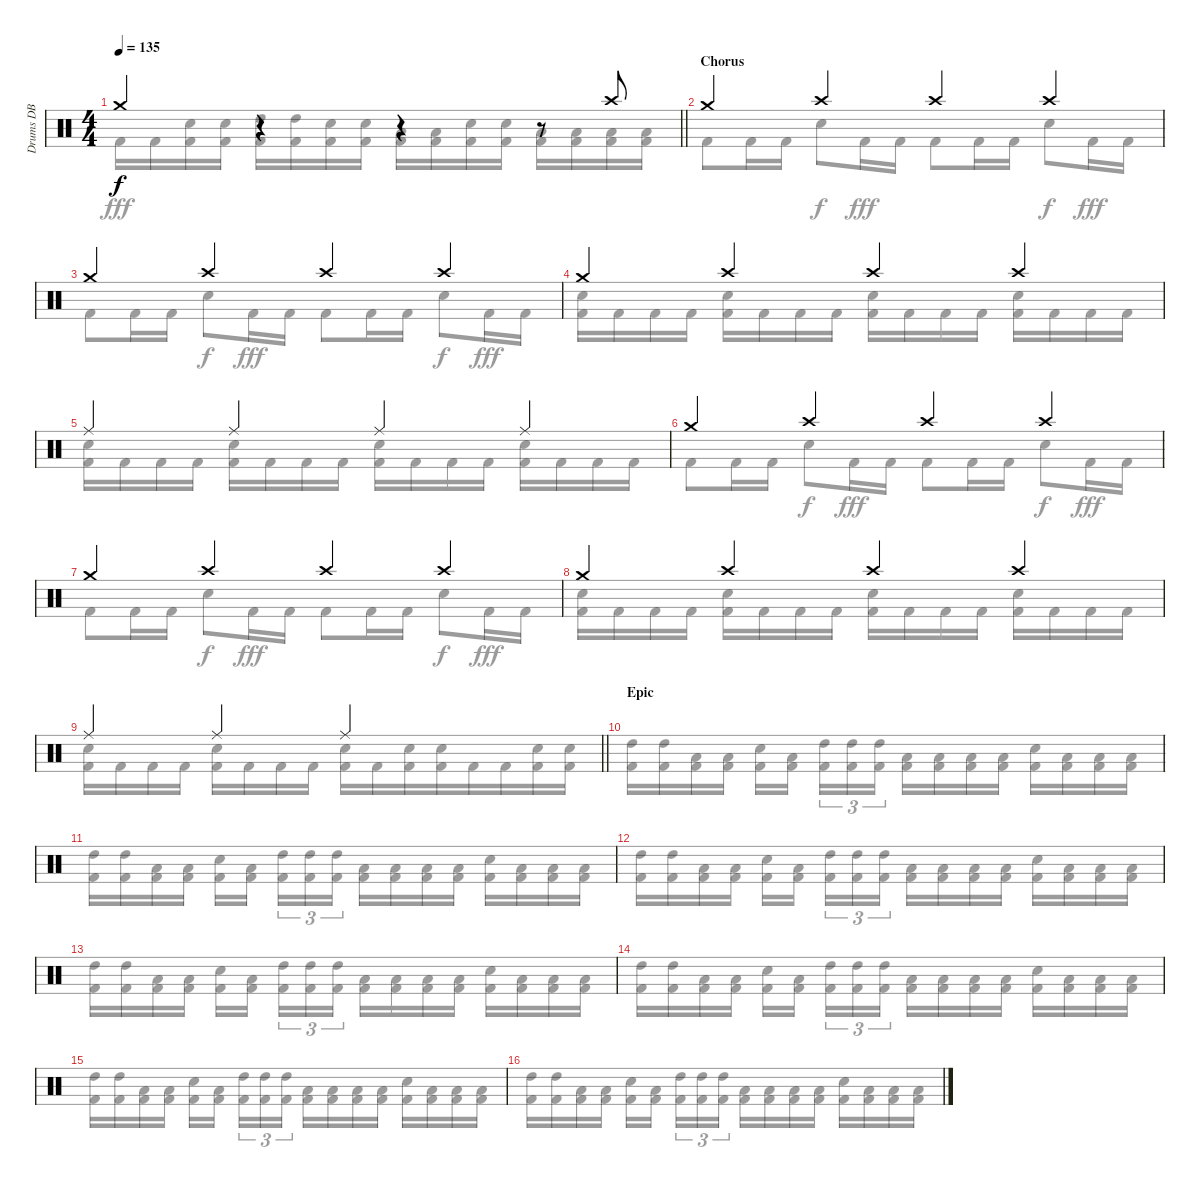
\track ("Drums DB" "Drums DB") {instrument percussion}
\staff {score}
\articulation defaults
\voice
\ts (4 4)
\tempo 135
\clef neutral
\barLineRight lightlight
\ks aminor "Crash medium (hit)".4{dy f}
r.4 r.4 r.8 "Crash high (hit)".8 |
\section ("" "Chorus")
"Crash medium (hit)".4 "Crash high (hit)".4 "Crash high (hit)".4 "Crash high (hit)".4 |
"Crash medium (hit)".4 "Crash high (hit)".4 "Crash high (hit)".4 "Crash high (hit)".4 |
"Crash medium (hit)".4 "Crash high (hit)".4 "Crash high (hit)".4 "Crash high (hit)".4 |
"Ride (middle)".4 "Ride (middle)".4 "Ride (middle)".4 "Ride (middle)".4 |
"Crash medium (hit)".4 "Crash high (hit)".4 "Crash high (hit)".4 "Crash high (hit)".4 |
"Crash medium (hit)".4 "Crash high (hit)".4 "Crash high (hit)".4 "Crash high (hit)".4 |
"Crash medium (hit)".4 "Crash high (hit)".4 "Crash high (hit)".4 "Crash high (hit)".4 |
\barLineRight lightlight "Ride (middle)".4 "Ride (middle)".4 "Ride (middle)".2
|
\section ("" "Epic")
|
|
|
|
|
|
\voice
\clef neutral
\ottava regular
\simile none
\barLineRight lightlight
\ks aminor "Kick (hit) 2".16{dy fff} "Kick (hit) 2".16
("Snare (hit) 2" "Kick (hit) 2").16 ("Snare (hit) 2" "Kick (hit) 2").16 ("High Tom (hit)" "Kick (hit) 2").16 ("High Tom (hit)" "Kick (hit) 2").16 ("Snare (hit) 2" "Kick (hit) 2").16 ("Snare (hit) 2" "Kick (hit) 2").16 ("Low Tom (hit)" "Kick (hit) 2").16 ("Low Tom (hit)" "Kick (hit) 2").16 ("Snare (hit) 2" "Kick (hit) 2").16 ("Snare (hit) 2" "Kick (hit) 2").16 ("Low Floor Tom (hit)" "Kick (hit) 2").16 ("Low Floor Tom (hit)" "Kick (hit) 2").16 ("Low Floor Tom (hit)" "Kick (hit) 2").16 ("Low Floor Tom (hit)" "Kick (hit) 2").16 |
"Kick (hit) 2".8 "Kick (hit) 2".16 "Kick (hit) 2".16 "Snare (hit) 2".8{dy f} "Kick (hit) 2".16{dy fff} "Kick (hit) 2".16 "Kick (hit) 2".8 "Kick (hit) 2".16 "Kick (hit) 2".16 "Snare (hit) 2".8{dy f} "Kick (hit) 2".16{dy fff} "Kick (hit) 2".16 |
"Kick (hit) 2".8 "Kick (hit) 2".16 "Kick (hit) 2".16 "Snare (hit) 2".8{dy f} "Kick (hit) 2".16{dy fff} "Kick (hit) 2".16 "Kick (hit) 2".8 "Kick (hit) 2".16 "Kick (hit) 2".16 "Snare (hit) 2".8{dy f} "Kick (hit) 2".16{dy fff} "Kick (hit) 2".16 |
("Snare (hit) 2" "Kick (hit) 2").16 "Kick (hit) 2".16 "Kick (hit) 2".16 "Kick (hit) 2".16 ("Snare (hit) 2" "Kick (hit) 2").16 "Kick (hit) 2".16 "Kick (hit) 2".16 "Kick (hit) 2".16 ("Snare (hit) 2" "Kick (hit) 2").16 "Kick (hit) 2".16 "Kick (hit) 2".16 "Kick (hit) 2".16 ("Snare (hit) 2" "Kick (hit) 2").16 "Kick (hit) 2".16 "Kick (hit) 2".16 "Kick (hit) 2".16 |
("Snare (hit) 2" "Kick (hit) 2").16 "Kick (hit) 2".16 "Kick (hit) 2".16 "Kick (hit) 2".16 ("Snare (hit) 2" "Kick (hit) 2").16 "Kick (hit) 2".16 "Kick (hit) 2".16 "Kick (hit) 2".16 ("Snare (hit) 2" "Kick (hit) 2").16 "Kick (hit) 2".16 "Kick (hit) 2".16 "Kick (hit) 2".16 ("Snare (hit) 2" "Kick (hit) 2").16 "Kick (hit) 2".16 "Kick (hit) 2".16 "Kick (hit) 2".16 |
"Kick (hit) 2".8 "Kick (hit) 2".16 "Kick (hit) 2".16 "Snare (hit) 2".8{dy f} "Kick (hit) 2".16{dy fff} "Kick (hit) 2".16 "Kick (hit) 2".8 "Kick (hit) 2".16 "Kick (hit) 2".16 "Snare (hit) 2".8{dy f} "Kick (hit) 2".16{dy fff} "Kick (hit) 2".16 |
"Kick (hit) 2".8 "Kick (hit) 2".16 "Kick (hit) 2".16 "Snare (hit) 2".8{dy f} "Kick (hit) 2".16{dy fff} "Kick (hit) 2".16 "Kick (hit) 2".8 "Kick (hit) 2".16 "Kick (hit) 2".16 "Snare (hit) 2".8{dy f} "Kick (hit) 2".16{dy fff} "Kick (hit) 2".16 |
("Snare (hit) 2" "Kick (hit) 2").16 "Kick (hit) 2".16 "Kick (hit) 2".16 "Kick (hit) 2".16 ("Snare (hit) 2" "Kick (hit) 2").16 "Kick (hit) 2".16 "Kick (hit) 2".16 "Kick (hit) 2".16 ("Snare (hit) 2" "Kick (hit) 2").16 "Kick (hit) 2".16 "Kick (hit) 2".16 "Kick (hit) 2".16 ("Snare (hit) 2" "Kick (hit) 2").16 "Kick (hit) 2".16 "Kick (hit) 2".16 "Kick (hit) 2".16 |
\barLineRight lightlight
("Snare (hit) 2" "Kick (hit) 2").16 "Kick (hit) 2".16 "Kick (hit) 2".16 "Kick (hit) 2".16 ("Snare (hit) 2" "Kick (hit) 2").16 "Kick (hit) 2".16 "Kick (hit) 2".16 "Kick (hit) 2".16 ("Snare (hit) 2" "Kick (hit) 2").16 "Kick (hit) 2".16{beam merge} ("Snare (hit) 2" "Kick (hit) 2").16 ("Snare (hit) 2" "Kick (hit) 2").16{beam merge} "Kick (hit) 2".16 "Kick (hit) 2".16{beam merge} ("Snare (hit) 2" "Kick (hit) 2").16 ("Snare (hit) 2" "Kick (hit) 2").16 |
("High Tom (hit)" "Kick (hit) 2").16 ("High Tom (hit)" "Kick (hit) 2").16 ("Low Tom (hit)" "Kick (hit) 2").16 ("Low Tom (hit)" "Kick (hit) 2").16 ("Snare (hit) 2" "Kick (hit) 2").16 ("Low Tom (hit)" "Kick (hit) 2").16{beam splitsecondary} ("High Tom (hit)" "Kick (hit) 2").16{tu (3 2)} ("High Tom (hit)" "Kick (hit) 2").16{tu (3 2)} ("High Tom (hit)" "Kick (hit) 2").16{tu (3 2)} ("Low Tom (hit)" "Kick (hit) 2").16 ("Low Tom (hit)" "Kick (hit) 2").16 ("Low Floor Tom (hit)" "Kick (hit) 2").16 ("Low Floor Tom (hit)" "Kick (hit) 2").16 ("Snare (hit) 2" "Kick (hit) 2").16 ("Low Tom (hit)" "Kick (hit) 2").16 ("Low Floor Tom (hit)" "Kick (hit) 2").16 ("Low Floor Tom (hit)" "Kick (hit) 2").16 |
("High Tom (hit)" "Kick (hit) 2").16 ("High Tom (hit)" "Kick (hit) 2").16 ("Low Tom (hit)" "Kick (hit) 2").16 ("Low Tom (hit)" "Kick (hit) 2").16 ("Snare (hit) 2" "Kick (hit) 2").16 ("Low Tom (hit)" "Kick (hit) 2").16{beam splitsecondary} ("High Tom (hit)" "Kick (hit) 2").16{tu (3 2)} ("High Tom (hit)" "Kick (hit) 2").16{tu (3 2)} ("High Tom (hit)" "Kick (hit) 2").16{tu (3 2)} ("Low Tom (hit)" "Kick (hit) 2").16 ("Low Tom (hit)" "Kick (hit) 2").16 ("Low Floor Tom (hit)" "Kick (hit) 2").16 ("Low Floor Tom (hit)" "Kick (hit) 2").16 ("Snare (hit) 2" "Kick (hit) 2").16 ("Low Tom (hit)" "Kick (hit) 2").16 ("Low Floor Tom (hit)" "Kick (hit) 2").16 ("Low Floor Tom (hit)" "Kick (hit) 2").16 |
("High Tom (hit)" "Kick (hit) 2").16 ("High Tom (hit)" "Kick (hit) 2").16 ("Low Tom (hit)" "Kick (hit) 2").16 ("Low Tom (hit)" "Kick (hit) 2").16 ("Snare (hit) 2" "Kick (hit) 2").16 ("Low Tom (hit)" "Kick (hit) 2").16{beam splitsecondary} ("High Tom (hit)" "Kick (hit) 2").16{tu (3 2)} ("High Tom (hit)" "Kick (hit) 2").16{tu (3 2)} ("High Tom (hit)" "Kick (hit) 2").16{tu (3 2)} ("Low Tom (hit)" "Kick (hit) 2").16 ("Low Tom (hit)" "Kick (hit) 2").16 ("Low Floor Tom (hit)" "Kick (hit) 2").16 ("Low Floor Tom (hit)" "Kick (hit) 2").16 ("Snare (hit) 2" "Kick (hit) 2").16 ("Low Tom (hit)" "Kick (hit) 2").16 ("Low Floor Tom (hit)" "Kick (hit) 2").16 ("Low Floor Tom (hit)" "Kick (hit) 2").16 |
("High Tom (hit)" "Kick (hit) 2").16 ("High Tom (hit)" "Kick (hit) 2").16 ("Low Tom (hit)" "Kick (hit) 2").16 ("Low Tom (hit)" "Kick (hit) 2").16 ("Snare (hit) 2" "Kick (hit) 2").16 ("Low Tom (hit)" "Kick (hit) 2").16{beam splitsecondary} ("High Tom (hit)" "Kick (hit) 2").16{tu (3 2)} ("High Tom (hit)" "Kick (hit) 2").16{tu (3 2)} ("High Tom (hit)" "Kick (hit) 2").16{tu (3 2)} ("Low Tom (hit)" "Kick (hit) 2").16 ("Low Tom (hit)" "Kick (hit) 2").16 ("Low Floor Tom (hit)" "Kick (hit) 2").16 ("Low Floor Tom (hit)" "Kick (hit) 2").16 ("Snare (hit) 2" "Kick (hit) 2").16 ("Low Tom (hit)" "Kick (hit) 2").16 ("Low Floor Tom (hit)" "Kick (hit) 2").16 ("Low Floor Tom (hit)" "Kick (hit) 2").16 |
("High Tom (hit)" "Kick (hit) 2").16 ("High Tom (hit)" "Kick (hit) 2").16 ("Low Tom (hit)" "Kick (hit) 2").16 ("Low Tom (hit)" "Kick (hit) 2").16 ("Snare (hit) 2" "Kick (hit) 2").16 ("Low Tom (hit)" "Kick (hit) 2").16{beam splitsecondary} ("High Tom (hit)" "Kick (hit) 2").16{tu (3 2)} ("High Tom (hit)" "Kick (hit) 2").16{tu (3 2)} ("High Tom (hit)" "Kick (hit) 2").16{tu (3 2)} ("Low Tom (hit)" "Kick (hit) 2").16 ("Low Tom (hit)" "Kick (hit) 2").16 ("Low Floor Tom (hit)" "Kick (hit) 2").16 ("Low Floor Tom (hit)" "Kick (hit) 2").16 ("Snare (hit) 2" "Kick (hit) 2").16 ("Low Tom (hit)" "Kick (hit) 2").16 ("Low Floor Tom (hit)" "Kick (hit) 2").16 ("Low Floor Tom (hit)" "Kick (hit) 2").16 |
("High Tom (hit)" "Kick (hit) 2").16 ("High Tom (hit)" "Kick (hit) 2").16 ("Low Tom (hit)" "Kick (hit) 2").16 ("Low Tom (hit)" "Kick (hit) 2").16 ("Snare (hit) 2" "Kick (hit) 2").16 ("Low Tom (hit)" "Kick (hit) 2").16{beam splitsecondary} ("High Tom (hit)" "Kick (hit) 2").16{tu (3 2)} ("High Tom (hit)" "Kick (hit) 2").16{tu (3 2)} ("High Tom (hit)" "Kick (hit) 2").16{tu (3 2)} ("Low Tom (hit)" "Kick (hit) 2").16 ("Low Tom (hit)" "Kick (hit) 2").16 ("Low Floor Tom (hit)" "Kick (hit) 2").16 ("Low Floor Tom (hit)" "Kick (hit) 2").16 ("Snare (hit) 2" "Kick (hit) 2").16 ("Low Tom (hit)" "Kick (hit) 2").16 ("Low Floor Tom (hit)" "Kick (hit) 2").16 ("Low Floor Tom (hit)" "Kick (hit) 2").16 |
("High Tom (hit)" "Kick (hit) 2").16 ("High Tom (hit)" "Kick (hit) 2").16 ("Low Tom (hit)" "Kick (hit) 2").16 ("Low Tom (hit)" "Kick (hit) 2").16 ("Snare (hit) 2" "Kick (hit) 2").16 ("Low Tom (hit)" "Kick (hit) 2").16{beam splitsecondary} ("High Tom (hit)" "Kick (hit) 2").16{tu (3 2)} ("High Tom (hit)" "Kick (hit) 2").16{tu (3 2)} ("High Tom (hit)" "Kick (hit) 2").16{tu (3 2)} ("Low Tom (hit)" "Kick (hit) 2").16 ("Low Tom (hit)" "Kick (hit) 2").16 ("Low Floor Tom (hit)" "Kick (hit) 2").16 ("Low Floor Tom (hit)" "Kick (hit) 2").16 ("Snare (hit) 2" "Kick (hit) 2").16 ("Low Tom (hit)" "Kick (hit) 2").16 ("Low Floor Tom (hit)" "Kick (hit) 2").16 ("Low Floor Tom (hit)" "Kick (hit) 2").16
